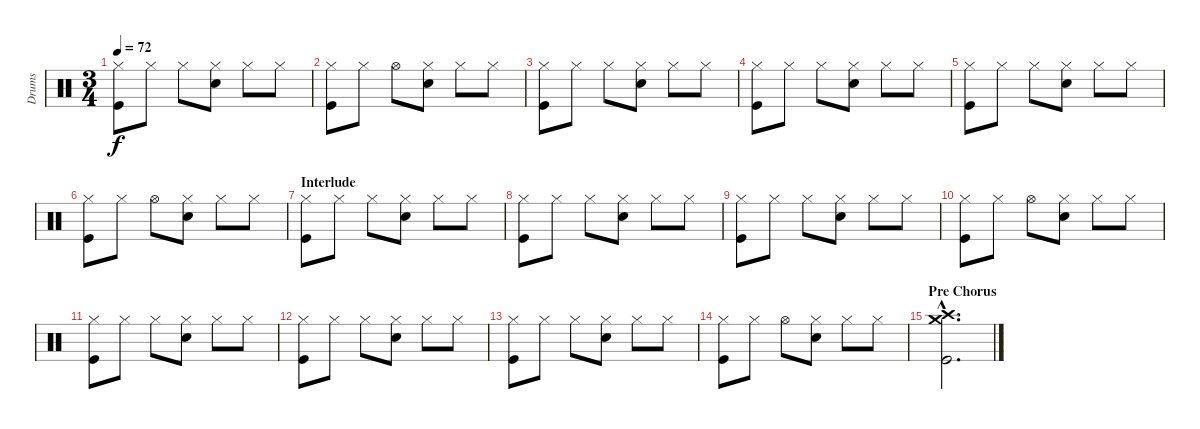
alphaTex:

\track ("Drums" "Drums") {instrument percussion}
\staff {score}
\articulation defaults
\ts (3 4)
\tempo 72
\clef neutral
\ks c
("Hi-Hat (closed)" "Kick (hit)").8{dy f} "Hi-Hat (closed)".8 "Hi-Hat (closed)".8 ("Hi-Hat (closed)" "Snare (hit) 2").8 "Hi-Hat (closed)".8 "Hi-Hat (closed)".8 |
("Hi-Hat (closed)" "Kick (hit)").8 "Hi-Hat (closed)".8 "Hi-Hat (open)".8 ("Hi-Hat (closed)" "Snare (hit) 2").8 "Hi-Hat (closed)".8 "Hi-Hat (closed)".8 |
("Hi-Hat (closed)" "Kick (hit)").8 "Hi-Hat (closed)".8 "Hi-Hat (closed)".8 ("Hi-Hat (closed)" "Snare (hit) 2").8 "Hi-Hat (closed)".8 "Hi-Hat (closed)".8 |
("Hi-Hat (closed)" "Kick (hit)").8 "Hi-Hat (closed)".8 "Hi-Hat (closed)".8 ("Hi-Hat (closed)" "Snare (hit) 2").8 "Hi-Hat (closed)".8 "Hi-Hat (closed)".8 |
("Hi-Hat (closed)" "Kick (hit)").8 "Hi-Hat (closed)".8 "Hi-Hat (closed)".8 ("Hi-Hat (closed)" "Snare (hit) 2").8 "Hi-Hat (closed)".8 "Hi-Hat (closed)".8 |
("Hi-Hat (closed)" "Kick (hit)").8 "Hi-Hat (closed)".8 "Hi-Hat (open)".8 ("Hi-Hat (closed)" "Snare (hit) 2").8 "Hi-Hat (closed)".8 "Hi-Hat (closed)".8 |
\section ("" "Interlude")
("Hi-Hat (closed)" "Kick (hit)").8 "Hi-Hat (closed)".8 "Hi-Hat (closed)".8 ("Hi-Hat (closed)" "Snare (hit) 2").8 "Hi-Hat (closed)".8 "Hi-Hat (closed)".8 |
("Hi-Hat (closed)" "Kick (hit)").8 "Hi-Hat (closed)".8 "Hi-Hat (closed)".8 ("Hi-Hat (closed)" "Snare (hit) 2").8 "Hi-Hat (closed)".8 "Hi-Hat (closed)".8 |
("Hi-Hat (closed)" "Kick (hit)").8 "Hi-Hat (closed)".8 "Hi-Hat (closed)".8 ("Hi-Hat (closed)" "Snare (hit) 2").8 "Hi-Hat (closed)".8 "Hi-Hat (closed)".8 |
("Hi-Hat (closed)" "Kick (hit)").8 "Hi-Hat (closed)".8 "Hi-Hat (open)".8 ("Hi-Hat (closed)" "Snare (hit) 2").8 "Hi-Hat (closed)".8 "Hi-Hat (closed)".8 |
("Hi-Hat (closed)" "Kick (hit)").8 "Hi-Hat (closed)".8 "Hi-Hat (closed)".8 ("Hi-Hat (closed)" "Snare (hit) 2").8 "Hi-Hat (closed)".8 "Hi-Hat (closed)".8 |
("Hi-Hat (closed)" "Kick (hit)").8 "Hi-Hat (closed)".8 "Hi-Hat (closed)".8 ("Hi-Hat (closed)" "Snare (hit) 2").8 "Hi-Hat (closed)".8 "Hi-Hat (closed)".8 |
("Hi-Hat (closed)" "Kick (hit)").8 "Hi-Hat (closed)".8 "Hi-Hat (closed)".8 ("Hi-Hat (closed)" "Snare (hit) 2").8 "Hi-Hat (closed)".8 "Hi-Hat (closed)".8 |
("Hi-Hat (closed)" "Kick (hit)").8 "Hi-Hat (closed)".8 "Hi-Hat (open)".8 ("Hi-Hat (closed)" "Snare (hit) 2").8 "Hi-Hat (closed)".8 "Hi-Hat (closed)".8 |
\section ("" "Pre Chorus")
("Crash medium (hit)"{hac} "Crash high (hit)"{hac} "Kick (hit)"{hac}).2{d}
